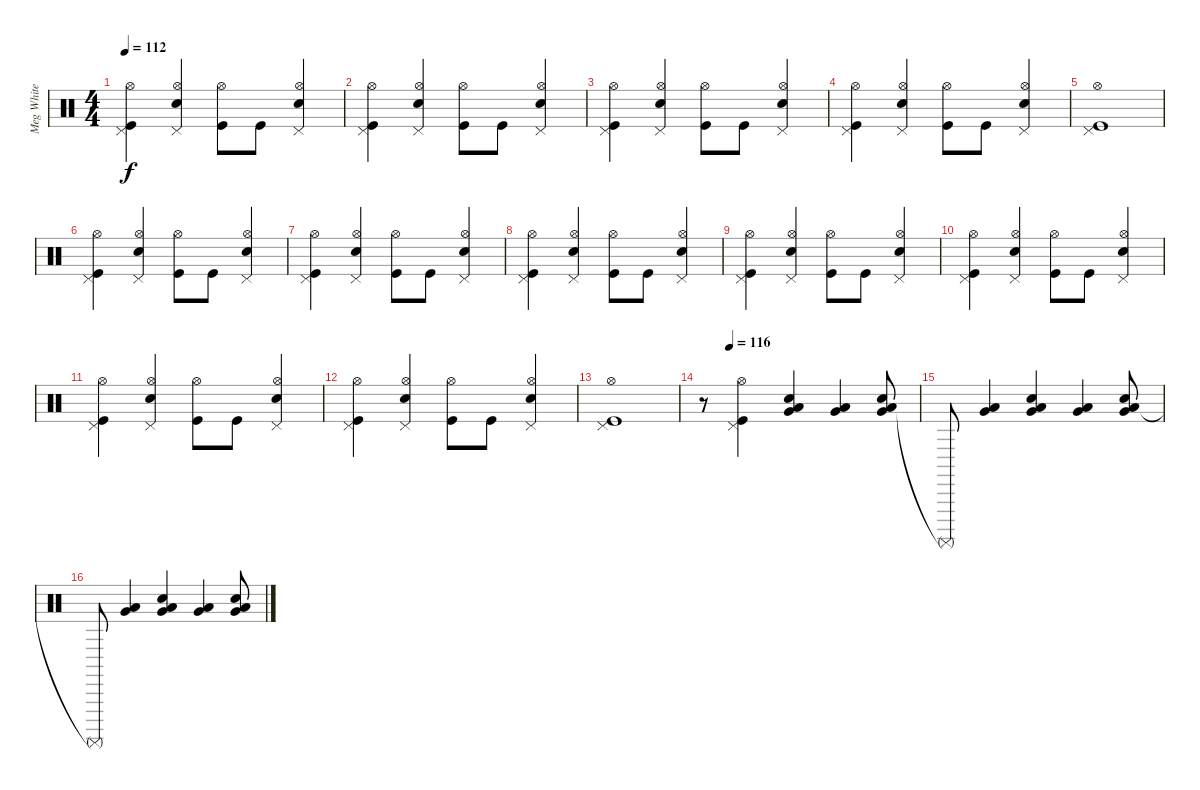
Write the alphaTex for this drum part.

\track ("Meg White" "Meg White") {instrument percussion}
\staff {score}
\articulation defaults
\ts (4 4)
\tempo 112
\clef neutral
\ks c
("Kick (hit)" "Pedal Hi-Hat (hit)" "Hi-Hat (open)").4{dy f} ("Snare (hit) 2" "Pedal Hi-Hat (hit)" "Hi-Hat (open)").4 ("Kick (hit)" "Hi-Hat (open)").8 "Kick (hit)".8 ("Snare (hit) 2" "Pedal Hi-Hat (hit)" "Hi-Hat (open)").4 |
("Kick (hit)" "Pedal Hi-Hat (hit)" "Hi-Hat (open)").4 ("Snare (hit) 2" "Pedal Hi-Hat (hit)" "Hi-Hat (open)").4 ("Kick (hit)" "Hi-Hat (open)").8 "Kick (hit)".8 ("Snare (hit) 2" "Pedal Hi-Hat (hit)" "Hi-Hat (open)").4 |
("Kick (hit)" "Pedal Hi-Hat (hit)" "Hi-Hat (open)").4 ("Snare (hit) 2" "Pedal Hi-Hat (hit)" "Hi-Hat (open)").4 ("Kick (hit)" "Hi-Hat (open)").8 "Kick (hit)".8 ("Snare (hit) 2" "Pedal Hi-Hat (hit)" "Hi-Hat (open)").4 |
("Kick (hit)" "Pedal Hi-Hat (hit)" "Hi-Hat (open)").4 ("Snare (hit) 2" "Pedal Hi-Hat (hit)" "Hi-Hat (open)").4 ("Kick (hit)" "Hi-Hat (open)").8 "Kick (hit)".8 ("Snare (hit) 2" "Pedal Hi-Hat (hit)" "Hi-Hat (open)").4 |
("Kick (hit)" "Pedal Hi-Hat (hit)" "Hi-Hat (open)").1 |
("Kick (hit)" "Pedal Hi-Hat (hit)" "Hi-Hat (open)").4 ("Snare (hit) 2" "Pedal Hi-Hat (hit)" "Hi-Hat (open)").4 ("Kick (hit)" "Hi-Hat (open)").8 "Kick (hit)".8 ("Snare (hit) 2" "Pedal Hi-Hat (hit)" "Hi-Hat (open)").4 |
("Kick (hit)" "Pedal Hi-Hat (hit)" "Hi-Hat (open)").4 ("Snare (hit) 2" "Pedal Hi-Hat (hit)" "Hi-Hat (open)").4 ("Kick (hit)" "Hi-Hat (open)").8 "Kick (hit)".8 ("Snare (hit) 2" "Pedal Hi-Hat (hit)" "Hi-Hat (open)").4 |
("Kick (hit)" "Pedal Hi-Hat (hit)" "Hi-Hat (open)").4 ("Snare (hit) 2" "Pedal Hi-Hat (hit)" "Hi-Hat (open)").4 ("Kick (hit)" "Hi-Hat (open)").8 "Kick (hit)".8 ("Snare (hit) 2" "Pedal Hi-Hat (hit)" "Hi-Hat (open)").4 |
("Kick (hit)" "Pedal Hi-Hat (hit)" "Hi-Hat (open)").4 ("Snare (hit) 2" "Pedal Hi-Hat (hit)" "Hi-Hat (open)").4 ("Kick (hit)" "Hi-Hat (open)").8 "Kick (hit)".8 ("Snare (hit) 2" "Pedal Hi-Hat (hit)" "Hi-Hat (open)").4 |
("Kick (hit)" "Pedal Hi-Hat (hit)" "Hi-Hat (open)").4 ("Snare (hit) 2" "Pedal Hi-Hat (hit)" "Hi-Hat (open)").4 ("Kick (hit)" "Hi-Hat (open)").8 "Kick (hit)".8 ("Snare (hit) 2" "Pedal Hi-Hat (hit)" "Hi-Hat (open)").4 |
("Kick (hit)" "Pedal Hi-Hat (hit)" "Hi-Hat (open)").4 ("Snare (hit) 2" "Pedal Hi-Hat (hit)" "Hi-Hat (open)").4 ("Kick (hit)" "Hi-Hat (open)").8 "Kick (hit)".8 ("Snare (hit) 2" "Pedal Hi-Hat (hit)" "Hi-Hat (open)").4 |
("Kick (hit)" "Pedal Hi-Hat (hit)" "Hi-Hat (open)").4 ("Snare (hit) 2" "Pedal Hi-Hat (hit)" "Hi-Hat (open)").4 ("Kick (hit)" "Hi-Hat (open)").8 "Kick (hit)".8 ("Snare (hit) 2" "Pedal Hi-Hat (hit)" "Hi-Hat (open)").4 |
("Kick (hit)" "Pedal Hi-Hat (hit)" "Hi-Hat (open)").1 |
\tempo (116 0.125)
r.8 ("Kick (hit)" "Pedal Hi-Hat (hit)" "Hi-Hat (open)").4 ("Low Floor Tom (hit)" "Electric Snare (hit)" "Very Low Tom (hit)").4 ("Low Floor Tom (hit)" "Very Low Tom (hit)").4 ("Low Floor Tom (hit)" "Electric Snare (hit)" "Very Low Tom (hit)").8 |
"Surdo (mute)"{t}.8 ("Low Floor Tom (hit)" "Very Low Tom (hit)").4 ("Low Floor Tom (hit)" "Electric Snare (hit)" "Very Low Tom (hit)").4 ("Low Floor Tom (hit)" "Very Low Tom (hit)").4 ("Low Floor Tom (hit)" "Electric Snare (hit)" "Very Low Tom (hit)").8 |
"Surdo (mute)"{t}.8 ("Low Floor Tom (hit)" "Very Low Tom (hit)").4 ("Low Floor Tom (hit)" "Electric Snare (hit)" "Very Low Tom (hit)").4 ("Low Floor Tom (hit)" "Very Low Tom (hit)").4 ("Low Floor Tom (hit)" "Electric Snare (hit)" "Very Low Tom (hit)").8
